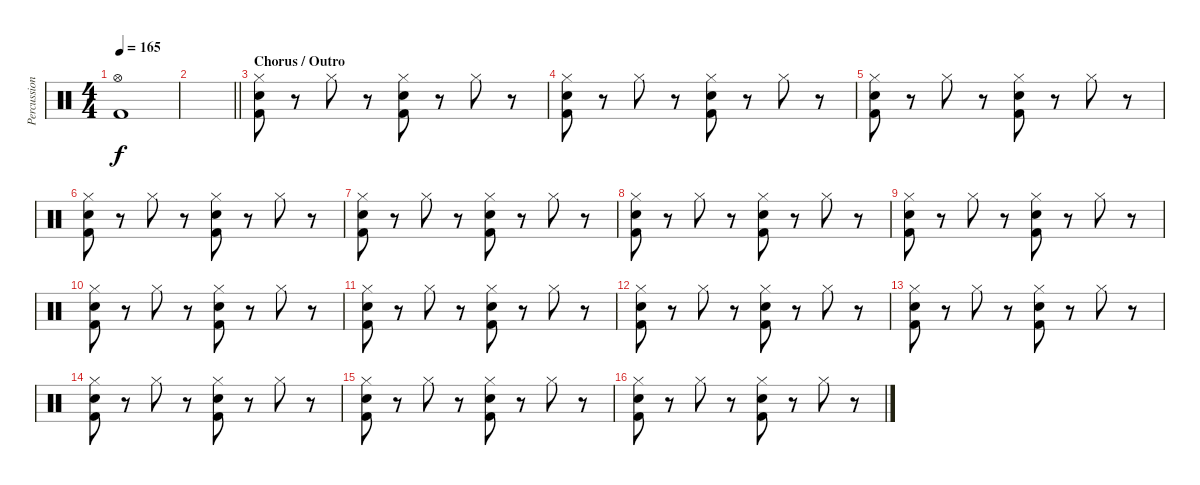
\track ("Percussion" "Percussion") {instrument percussion}
\staff {score}
\articulation defaults
\ts (4 4)
\tempo 165
\clef neutral
\ks c
("Hi-Hat (open)" "Kick (hit) 2").1{dy f} |
\barLineRight lightlight
|
\section ("" "Chorus / Outro")
("Snare (hit) 2" "Kick (hit) 2" "Hi-Hat (closed)").8 r.8 "Hi-Hat (closed)".8 r.8 ("Snare (hit) 2" "Kick (hit) 2" "Hi-Hat (closed)").8 r.8 "Hi-Hat (closed)".8 r.8 |
("Snare (hit) 2" "Kick (hit) 2" "Hi-Hat (closed)").8 r.8 "Hi-Hat (closed)".8 r.8 ("Snare (hit) 2" "Kick (hit) 2" "Hi-Hat (closed)").8 r.8 "Hi-Hat (closed)".8 r.8 |
("Snare (hit) 2" "Kick (hit) 2" "Hi-Hat (closed)").8 r.8 "Hi-Hat (closed)".8 r.8 ("Snare (hit) 2" "Kick (hit) 2" "Hi-Hat (closed)").8 r.8 "Hi-Hat (closed)".8 r.8 |
("Snare (hit) 2" "Kick (hit) 2" "Hi-Hat (closed)").8 r.8 "Hi-Hat (closed)".8 r.8 ("Snare (hit) 2" "Kick (hit) 2" "Hi-Hat (closed)").8 r.8 "Hi-Hat (closed)".8 r.8 |
("Snare (hit) 2" "Kick (hit) 2" "Hi-Hat (closed)").8 r.8 "Hi-Hat (closed)".8 r.8 ("Snare (hit) 2" "Kick (hit) 2" "Hi-Hat (closed)").8 r.8 "Hi-Hat (closed)".8 r.8 |
("Snare (hit) 2" "Kick (hit) 2" "Hi-Hat (closed)").8 r.8 "Hi-Hat (closed)".8 r.8 ("Snare (hit) 2" "Kick (hit) 2" "Hi-Hat (closed)").8 r.8 "Hi-Hat (closed)".8 r.8 |
("Snare (hit) 2" "Kick (hit) 2" "Hi-Hat (closed)").8 r.8 "Hi-Hat (closed)".8 r.8 ("Snare (hit) 2" "Kick (hit) 2" "Hi-Hat (closed)").8 r.8 "Hi-Hat (closed)".8 r.8 |
("Snare (hit) 2" "Kick (hit) 2" "Hi-Hat (closed)").8 r.8 "Hi-Hat (closed)".8 r.8 ("Snare (hit) 2" "Kick (hit) 2" "Hi-Hat (closed)").8 r.8 "Hi-Hat (closed)".8 r.8 |
("Snare (hit) 2" "Kick (hit) 2" "Hi-Hat (closed)").8 r.8 "Hi-Hat (closed)".8 r.8 ("Snare (hit) 2" "Kick (hit) 2" "Hi-Hat (closed)").8 r.8 "Hi-Hat (closed)".8 r.8 |
("Snare (hit) 2" "Kick (hit) 2" "Hi-Hat (closed)").8 r.8 "Hi-Hat (closed)".8 r.8 ("Snare (hit) 2" "Kick (hit) 2" "Hi-Hat (closed)").8 r.8 "Hi-Hat (closed)".8 r.8 |
("Snare (hit) 2" "Kick (hit) 2" "Hi-Hat (closed)").8 r.8 "Hi-Hat (closed)".8 r.8 ("Snare (hit) 2" "Kick (hit) 2" "Hi-Hat (closed)").8 r.8 "Hi-Hat (closed)".8 r.8 |
("Snare (hit) 2" "Kick (hit) 2" "Hi-Hat (closed)").8 r.8 "Hi-Hat (closed)".8 r.8 ("Snare (hit) 2" "Kick (hit) 2" "Hi-Hat (closed)").8 r.8 "Hi-Hat (closed)".8 r.8 |
("Snare (hit) 2" "Kick (hit) 2" "Hi-Hat (closed)").8 r.8 "Hi-Hat (closed)".8 r.8 ("Snare (hit) 2" "Kick (hit) 2" "Hi-Hat (closed)").8 r.8 "Hi-Hat (closed)".8 r.8 |
("Snare (hit) 2" "Kick (hit) 2" "Hi-Hat (closed)").8 r.8 "Hi-Hat (closed)".8 r.8 ("Snare (hit) 2" "Kick (hit) 2" "Hi-Hat (closed)").8 r.8 "Hi-Hat (closed)".8 r.8
